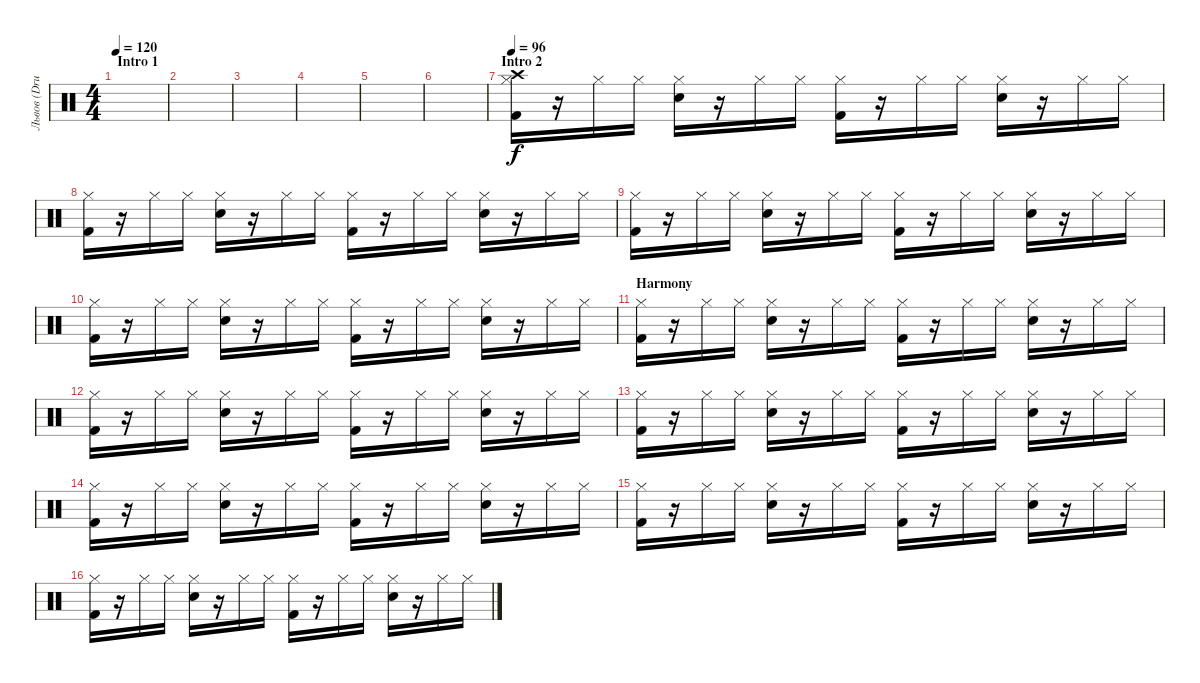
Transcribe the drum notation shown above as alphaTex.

\track ("Львов (Drums)" "Львов (Dru") {instrument percussion}
\staff {score}
\articulation defaults
\ts (4 4)
\section ("" "Intro 1")
\tempo 120
\clef neutral
\ks c
|
|
|
|
|
|
\section ("" "Intro 2")
\tempo 96
("Kick (hit) 2" "Hi-Hat (closed)" "Crash high (hit)").16 r.16 "Hi-Hat (closed)".16 "Hi-Hat (closed)".16 ("Electric Snare (hit)" "Hi-Hat (closed)").16 r.16 "Hi-Hat (closed)".16 "Hi-Hat (closed)".16 ("Kick (hit) 2" "Hi-Hat (closed)").16 r.16 "Hi-Hat (closed)".16 "Hi-Hat (closed)".16 ("Electric Snare (hit)" "Hi-Hat (closed)").16 r.16 "Hi-Hat (closed)".16 "Hi-Hat (closed)".16 |
("Kick (hit) 2" "Hi-Hat (closed)").16 r.16 "Hi-Hat (closed)".16 "Hi-Hat (closed)".16 ("Electric Snare (hit)" "Hi-Hat (closed)").16 r.16 "Hi-Hat (closed)".16 "Hi-Hat (closed)".16 ("Kick (hit) 2" "Hi-Hat (closed)").16 r.16 "Hi-Hat (closed)".16 "Hi-Hat (closed)".16 ("Electric Snare (hit)" "Hi-Hat (closed)").16 r.16 "Hi-Hat (closed)".16 "Hi-Hat (closed)".16 |
("Kick (hit) 2" "Hi-Hat (closed)").16 r.16 "Hi-Hat (closed)".16 "Hi-Hat (closed)".16 ("Electric Snare (hit)" "Hi-Hat (closed)").16 r.16 "Hi-Hat (closed)".16 "Hi-Hat (closed)".16 ("Kick (hit) 2" "Hi-Hat (closed)").16 r.16 "Hi-Hat (closed)".16 "Hi-Hat (closed)".16 ("Electric Snare (hit)" "Hi-Hat (closed)").16 r.16 "Hi-Hat (closed)".16 "Hi-Hat (closed)".16 |
("Kick (hit) 2" "Hi-Hat (closed)").16 r.16 "Hi-Hat (closed)".16 "Hi-Hat (closed)".16 ("Electric Snare (hit)" "Hi-Hat (closed)").16 r.16 "Hi-Hat (closed)".16 "Hi-Hat (closed)".16 ("Kick (hit) 2" "Hi-Hat (closed)").16 r.16 "Hi-Hat (closed)".16 "Hi-Hat (closed)".16 ("Electric Snare (hit)" "Hi-Hat (closed)").16 r.16 "Hi-Hat (closed)".16 "Hi-Hat (closed)".16 |
\section ("" "Harmony")
("Kick (hit) 2" "Hi-Hat (closed)").16 r.16 "Hi-Hat (closed)".16 "Hi-Hat (closed)".16 ("Electric Snare (hit)" "Hi-Hat (closed)").16 r.16 "Hi-Hat (closed)".16 "Hi-Hat (closed)".16 ("Kick (hit) 2" "Hi-Hat (closed)").16 r.16 "Hi-Hat (closed)".16 "Hi-Hat (closed)".16 ("Electric Snare (hit)" "Hi-Hat (closed)").16 r.16 "Hi-Hat (closed)".16 "Hi-Hat (closed)".16 |
("Kick (hit) 2" "Hi-Hat (closed)").16 r.16 "Hi-Hat (closed)".16 "Hi-Hat (closed)".16 ("Electric Snare (hit)" "Hi-Hat (closed)").16 r.16 "Hi-Hat (closed)".16 "Hi-Hat (closed)".16 ("Kick (hit) 2" "Hi-Hat (closed)").16 r.16 "Hi-Hat (closed)".16 "Hi-Hat (closed)".16 ("Electric Snare (hit)" "Hi-Hat (closed)").16 r.16 "Hi-Hat (closed)".16 "Hi-Hat (closed)".16 |
("Kick (hit) 2" "Hi-Hat (closed)").16 r.16 "Hi-Hat (closed)".16 "Hi-Hat (closed)".16 ("Electric Snare (hit)" "Hi-Hat (closed)").16 r.16 "Hi-Hat (closed)".16 "Hi-Hat (closed)".16 ("Kick (hit) 2" "Hi-Hat (closed)").16 r.16 "Hi-Hat (closed)".16 "Hi-Hat (closed)".16 ("Electric Snare (hit)" "Hi-Hat (closed)").16 r.16 "Hi-Hat (closed)".16 "Hi-Hat (closed)".16 |
("Kick (hit) 2" "Hi-Hat (closed)").16 r.16 "Hi-Hat (closed)".16 "Hi-Hat (closed)".16 ("Electric Snare (hit)" "Hi-Hat (closed)").16 r.16 "Hi-Hat (closed)".16 "Hi-Hat (closed)".16 ("Kick (hit) 2" "Hi-Hat (closed)").16 r.16 "Hi-Hat (closed)".16 "Hi-Hat (closed)".16 ("Electric Snare (hit)" "Hi-Hat (closed)").16 r.16 "Hi-Hat (closed)".16 "Hi-Hat (closed)".16 |
("Kick (hit) 2" "Hi-Hat (closed)").16 r.16 "Hi-Hat (closed)".16 "Hi-Hat (closed)".16 ("Electric Snare (hit)" "Hi-Hat (closed)").16 r.16 "Hi-Hat (closed)".16 "Hi-Hat (closed)".16 ("Kick (hit) 2" "Hi-Hat (closed)").16 r.16 "Hi-Hat (closed)".16 "Hi-Hat (closed)".16 ("Electric Snare (hit)" "Hi-Hat (closed)").16 r.16 "Hi-Hat (closed)".16 "Hi-Hat (closed)".16 |
("Kick (hit) 2" "Hi-Hat (closed)").16 r.16 "Hi-Hat (closed)".16 "Hi-Hat (closed)".16 ("Electric Snare (hit)" "Hi-Hat (closed)").16 r.16 "Hi-Hat (closed)".16 "Hi-Hat (closed)".16 ("Kick (hit) 2" "Hi-Hat (closed)").16 r.16 "Hi-Hat (closed)".16 "Hi-Hat (closed)".16 ("Electric Snare (hit)" "Hi-Hat (closed)").16 r.16 "Hi-Hat (closed)".16 "Hi-Hat (closed)".16
